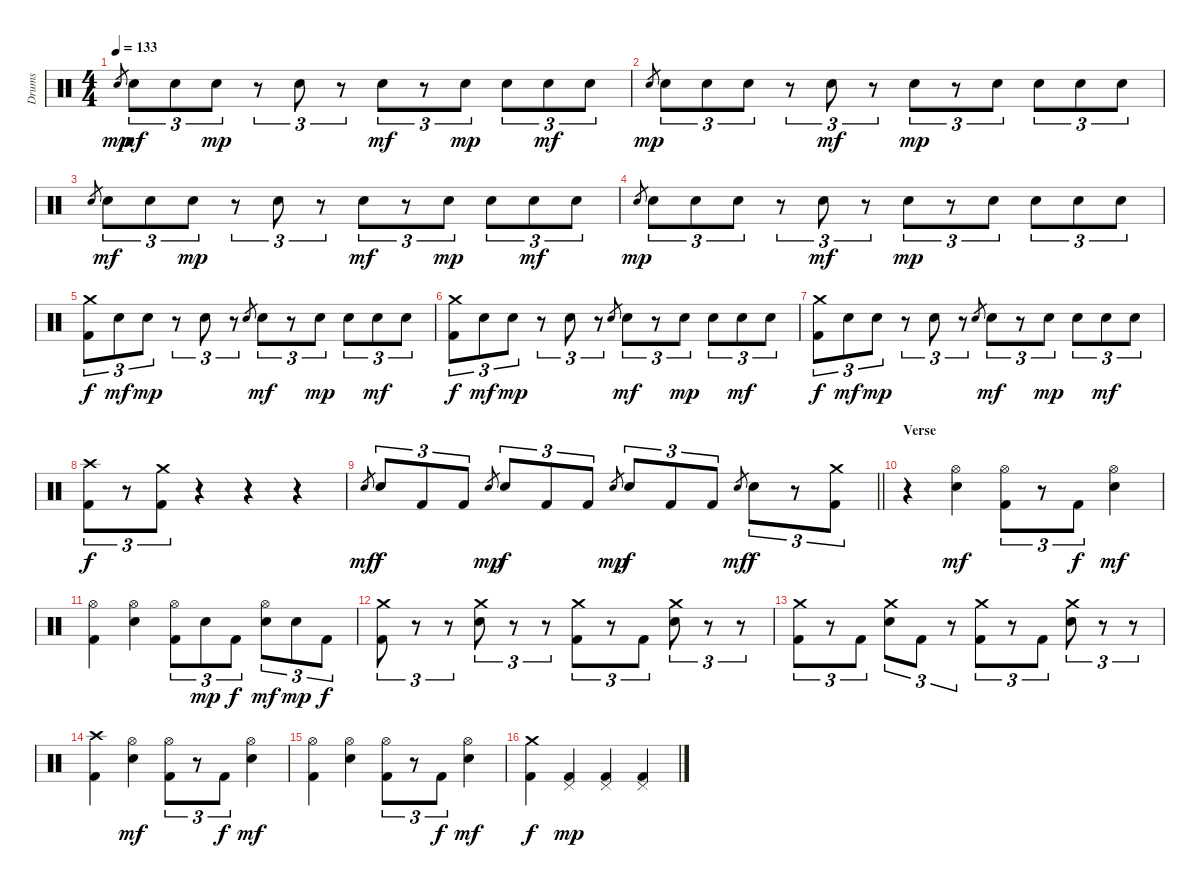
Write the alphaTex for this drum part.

\track ("Drums" "Drums") {instrument percussion}
\staff {score}
\articulation defaults
\ts (4 4)
\tempo 133
\clef neutral
\ks c "Electric Snare (hit)".8{gr dy mp} "Electric Snare (hit)".8{tu (3 2) dy mf} "Electric Snare (hit)".8{tu (3 2)} "Electric Snare (hit)".8{tu (3 2) dy mp}
r.8{tu (3 2)} "Electric Snare (hit)".8{tu (3 2)} r.8{tu (3 2)} "Electric Snare (hit)".8{tu (3 2) dy mf} r.8{tu (3 2)} "Electric Snare (hit)".8{tu (3 2) dy mp} "Electric Snare (hit)".8{tu (3 2)} "Electric Snare (hit)".8{tu (3 2) dy mf} "Electric Snare (hit)".8{tu (3 2)} |
"Electric Snare (hit)".8{gr dy mp} "Electric Snare (hit)".8{tu (3 2)} "Electric Snare (hit)".8{tu (3 2)} "Electric Snare (hit)".8{tu (3 2)} r.8{tu (3 2)} "Electric Snare (hit)".8{tu (3 2) dy mf} r.8{tu (3 2)} "Electric Snare (hit)".8{tu (3 2) dy mp} r.8{tu (3 2)} "Electric Snare (hit)".8{tu (3 2)} "Electric Snare (hit)".8{tu (3 2)} "Electric Snare (hit)".8{tu (3 2)} "Electric Snare (hit)".8{tu (3 2)} |
"Electric Snare (hit)".8{gr} "Electric Snare (hit)".8{tu (3 2) dy mf} "Electric Snare (hit)".8{tu (3 2)} "Electric Snare (hit)".8{tu (3 2) dy mp} r.8{tu (3 2)} "Electric Snare (hit)".8{tu (3 2)} r.8{tu (3 2)} "Electric Snare (hit)".8{tu (3 2) dy mf} r.8{tu (3 2)} "Electric Snare (hit)".8{tu (3 2) dy mp} "Electric Snare (hit)".8{tu (3 2)} "Electric Snare (hit)".8{tu (3 2) dy mf} "Electric Snare (hit)".8{tu (3 2)} |
"Electric Snare (hit)".8{gr dy mp} "Electric Snare (hit)".8{tu (3 2)} "Electric Snare (hit)".8{tu (3 2)} "Electric Snare (hit)".8{tu (3 2)} r.8{tu (3 2)} "Electric Snare (hit)".8{tu (3 2) dy mf} r.8{tu (3 2)} "Electric Snare (hit)".8{tu (3 2) dy mp} r.8{tu (3 2)} "Electric Snare (hit)".8{tu (3 2)} "Electric Snare (hit)".8{tu (3 2)} "Electric Snare (hit)".8{tu (3 2)} "Electric Snare (hit)".8{tu (3 2)} |
("Crash medium (hit)" "Kick (hit) 2").8{tu (3 2) dy f} "Electric Snare (hit)".8{tu (3 2) dy mf} "Electric Snare (hit)".8{tu (3 2) dy mp} r.8{tu (3 2)} "Electric Snare (hit)".8{tu (3 2)} r.8{tu (3 2)} "Electric Snare (hit)".8{gr} "Electric Snare (hit)".8{tu (3 2) dy mf} r.8{tu (3 2)} "Electric Snare (hit)".8{tu (3 2) dy mp} "Electric Snare (hit)".8{tu (3 2)} "Electric Snare (hit)".8{tu (3 2) dy mf} "Electric Snare (hit)".8{tu (3 2)} |
("Crash medium (hit)" "Kick (hit) 2").8{tu (3 2) dy f} "Electric Snare (hit)".8{tu (3 2) dy mf} "Electric Snare (hit)".8{tu (3 2) dy mp} r.8{tu (3 2)} "Electric Snare (hit)".8{tu (3 2)} r.8{tu (3 2)} "Electric Snare (hit)".8{gr} "Electric Snare (hit)".8{tu (3 2) dy mf} r.8{tu (3 2)} "Electric Snare (hit)".8{tu (3 2) dy mp} "Electric Snare (hit)".8{tu (3 2)} "Electric Snare (hit)".8{tu (3 2) dy mf} "Electric Snare (hit)".8{tu (3 2)} |
("Crash medium (hit)" "Kick (hit) 2").8{tu (3 2) dy f} "Electric Snare (hit)".8{tu (3 2) dy mf} "Electric Snare (hit)".8{tu (3 2) dy mp} r.8{tu (3 2)} "Electric Snare (hit)".8{tu (3 2)} r.8{tu (3 2)} "Electric Snare (hit)".8{gr} "Electric Snare (hit)".8{tu (3 2) dy mf} r.8{tu (3 2)} "Electric Snare (hit)".8{tu (3 2) dy mp} "Electric Snare (hit)".8{tu (3 2)} "Electric Snare (hit)".8{tu (3 2) dy mf} "Electric Snare (hit)".8{tu (3 2)} |
("Crash high (hit)" "Kick (hit) 2").8{tu (3 2) dy f} r.8{tu (3 2)} ("Crash medium (hit)" "Kick (hit) 2").8{tu (3 2)} r.4 r.4 r.4 |
\barLineRight lightlight "Electric Snare (hit)".8{gr dy mf} "Electric Snare (hit)".8{tu (3 2) dy f} "Kick (hit) 2".8{tu (3 2)} "Kick (hit) 2".8{tu (3 2)} "Electric Snare (hit)".8{gr dy mp} "Electric Snare (hit)".8{tu (3 2) dy f} "Kick (hit) 2".8{tu (3 2)} "Kick (hit) 2".8{tu (3 2)} "Electric Snare (hit)".8{gr dy mp} "Electric Snare (hit)".8{tu (3 2) dy f} "Kick (hit) 2".8{tu (3 2)} "Kick (hit) 2".8{tu (3 2)} "Electric Snare (hit)".8{gr dy mf} "Electric Snare (hit)".8{tu (3 2) dy f}
r.8{tu (3 2)} ("Crash medium (hit)" "Kick (hit) 2").8{tu (3 2)} |
\section ("" "Verse")
r.4 ("Hi-Hat (open)" "Electric Snare (hit)").4{dy mf} ("Hi-Hat (open)" "Kick (hit) 2").8{tu (3 2)} r.8{tu (3 2)} "Kick (hit) 2".8{tu (3 2) dy f} ("Hi-Hat (open)" "Electric Snare (hit)").4{dy mf} |
("Hi-Hat (open)" "Kick (hit) 2").4 ("Hi-Hat (open)" "Electric Snare (hit)").4 ("Hi-Hat (open)" "Kick (hit) 2").8{tu (3 2)} "Electric Snare (hit)".8{tu (3 2) dy mp} "Kick (hit) 2".8{tu (3 2) dy f} ("Hi-Hat (open)" "Electric Snare (hit)").8{tu (3 2) dy mf} "Electric Snare (hit)".8{tu (3 2) dy mp} "Kick (hit) 2".8{tu (3 2) dy f} |
("Crash medium (hit)" "Kick (hit) 2").8{tu (3 2)} r.8{tu (3 2)} r.8{tu (3 2)} ("Crash medium (hit)" "Electric Snare (hit)").8{tu (3 2)} r.8{tu (3 2)} r.8{tu (3 2)} ("Crash medium (hit)" "Kick (hit) 2").8{tu (3 2)} r.8{tu (3 2)} "Kick (hit) 2".8{tu (3 2)} ("Crash medium (hit)" "Electric Snare (hit)").8{tu (3 2)} r.8{tu (3 2)} r.8{tu (3 2)} |
("Crash medium (hit)" "Kick (hit) 2").8{tu (3 2)} r.8{tu (3 2)} "Kick (hit) 2".8{tu (3 2)} ("Crash medium (hit)" "Electric Snare (hit)").8{tu (3 2)} "Kick (hit) 2".8{tu (3 2)} r.8{tu (3 2)} ("Crash medium (hit)" "Kick (hit) 2").8{tu (3 2)} r.8{tu (3 2)} "Kick (hit) 2".8{tu (3 2)} ("Crash medium (hit)" "Electric Snare (hit)").8{tu (3 2)} r.8{tu (3 2)} r.8{tu (3 2)} |
("Crash high (hit)" "Kick (hit) 2").4 ("Hi-Hat (open)" "Electric Snare (hit)").4{dy mf} ("Hi-Hat (open)" "Kick (hit) 2").8{tu (3 2)} r.8{tu (3 2)} "Kick (hit) 2".8{tu (3 2) dy f} ("Hi-Hat (open)" "Electric Snare (hit)").4{dy mf} |
("Hi-Hat (open)" "Kick (hit) 2").4 ("Hi-Hat (open)" "Electric Snare (hit)").4 ("Hi-Hat (open)" "Kick (hit) 2").8{tu (3 2)} r.8{tu (3 2)} "Kick (hit) 2".8{tu (3 2) dy f} ("Hi-Hat (open)" "Electric Snare (hit)").4{dy mf} |
("Crash medium (hit)" "Kick (hit) 2").4{dy f} ("Pedal Hi-Hat (hit)" "Kick (hit) 2").4{dy mp} ("Pedal Hi-Hat (hit)" "Kick (hit) 2").4 ("Pedal Hi-Hat (hit)" "Kick (hit) 2").4
